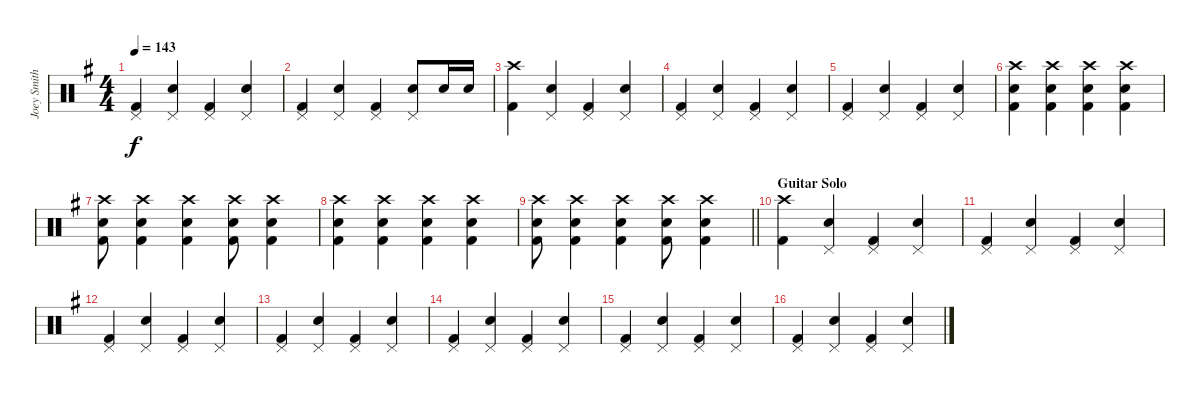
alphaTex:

\track ("Joey Smith" "Joey Smith") {instrument percussion}
\staff {score}
\articulation defaults
\ts (4 4)
\tempo 143
\clef neutral
\ks g
("Pedal Hi-Hat (hit)" "Kick (hit) 2").4{dy f} ("Pedal Hi-Hat (hit)" "Snare (hit) 2").4 ("Pedal Hi-Hat (hit)" "Kick (hit) 2").4 ("Pedal Hi-Hat (hit)" "Snare (hit) 2").4 |
("Pedal Hi-Hat (hit)" "Kick (hit) 2").4 ("Pedal Hi-Hat (hit)" "Snare (hit) 2").4 ("Pedal Hi-Hat (hit)" "Kick (hit) 2").4 ("Pedal Hi-Hat (hit)" "Snare (hit) 2").8 "Snare (hit) 2".16 "Snare (hit) 2".16 |
("Crash high (hit)" "Kick (hit) 2").4 ("Pedal Hi-Hat (hit)" "Snare (hit) 2").4 ("Pedal Hi-Hat (hit)" "Kick (hit) 2").4 ("Pedal Hi-Hat (hit)" "Snare (hit) 2").4 |
("Pedal Hi-Hat (hit)" "Kick (hit) 2").4 ("Pedal Hi-Hat (hit)" "Snare (hit) 2").4 ("Pedal Hi-Hat (hit)" "Kick (hit) 2").4 ("Pedal Hi-Hat (hit)" "Snare (hit) 2").4 |
("Pedal Hi-Hat (hit)" "Kick (hit) 2").4 ("Pedal Hi-Hat (hit)" "Snare (hit) 2").4 ("Pedal Hi-Hat (hit)" "Kick (hit) 2").4 ("Pedal Hi-Hat (hit)" "Snare (hit) 2").4 |
("Crash high (hit)" "Snare (hit) 2" "Kick (hit) 2").4 ("Crash high (hit)" "Snare (hit) 2" "Kick (hit) 2").4 ("Crash high (hit)" "Snare (hit) 2" "Kick (hit) 2").4 ("Crash high (hit)" "Snare (hit) 2" "Kick (hit) 2").4 |
("Crash high (hit)" "Snare (hit) 2" "Kick (hit) 2").8 ("Crash high (hit)" "Snare (hit) 2" "Kick (hit) 2").4 ("Crash high (hit)" "Snare (hit) 2" "Kick (hit) 2").4 ("Crash high (hit)" "Snare (hit) 2" "Kick (hit) 2").8 ("Crash high (hit)" "Snare (hit) 2" "Kick (hit) 2").4 |
("Crash high (hit)" "Snare (hit) 2" "Kick (hit) 2").4 ("Crash high (hit)" "Snare (hit) 2" "Kick (hit) 2").4 ("Crash high (hit)" "Snare (hit) 2" "Kick (hit) 2").4 ("Crash high (hit)" "Snare (hit) 2" "Kick (hit) 2").4 |
\barLineRight lightlight
("Crash high (hit)" "Snare (hit) 2" "Kick (hit) 2").8 ("Crash high (hit)" "Snare (hit) 2" "Kick (hit) 2").4 ("Crash high (hit)" "Snare (hit) 2" "Kick (hit) 2").4 ("Crash high (hit)" "Snare (hit) 2" "Kick (hit) 2").8 ("Crash high (hit)" "Snare (hit) 2" "Kick (hit) 2").4 |
\section ("" "Guitar Solo")
("Crash high (hit)" "Kick (hit) 2").4 ("Pedal Hi-Hat (hit)" "Snare (hit) 2").4 ("Pedal Hi-Hat (hit)" "Kick (hit) 2").4 ("Pedal Hi-Hat (hit)" "Snare (hit) 2").4 |
("Pedal Hi-Hat (hit)" "Kick (hit) 2").4 ("Pedal Hi-Hat (hit)" "Snare (hit) 2").4 ("Pedal Hi-Hat (hit)" "Kick (hit) 2").4 ("Pedal Hi-Hat (hit)" "Snare (hit) 2").4 |
("Pedal Hi-Hat (hit)" "Kick (hit) 2").4 ("Pedal Hi-Hat (hit)" "Snare (hit) 2").4 ("Pedal Hi-Hat (hit)" "Kick (hit) 2").4 ("Pedal Hi-Hat (hit)" "Snare (hit) 2").4 |
("Pedal Hi-Hat (hit)" "Kick (hit) 2").4 ("Pedal Hi-Hat (hit)" "Snare (hit) 2").4 ("Pedal Hi-Hat (hit)" "Kick (hit) 2").4 ("Pedal Hi-Hat (hit)" "Snare (hit) 2").4 |
("Pedal Hi-Hat (hit)" "Kick (hit) 2").4 ("Pedal Hi-Hat (hit)" "Snare (hit) 2").4 ("Pedal Hi-Hat (hit)" "Kick (hit) 2").4 ("Pedal Hi-Hat (hit)" "Snare (hit) 2").4 |
("Pedal Hi-Hat (hit)" "Kick (hit) 2").4 ("Pedal Hi-Hat (hit)" "Snare (hit) 2").4 ("Pedal Hi-Hat (hit)" "Kick (hit) 2").4 ("Pedal Hi-Hat (hit)" "Snare (hit) 2").4 |
("Pedal Hi-Hat (hit)" "Kick (hit) 2").4 ("Pedal Hi-Hat (hit)" "Snare (hit) 2").4 ("Pedal Hi-Hat (hit)" "Kick (hit) 2").4 ("Pedal Hi-Hat (hit)" "Snare (hit) 2").4
